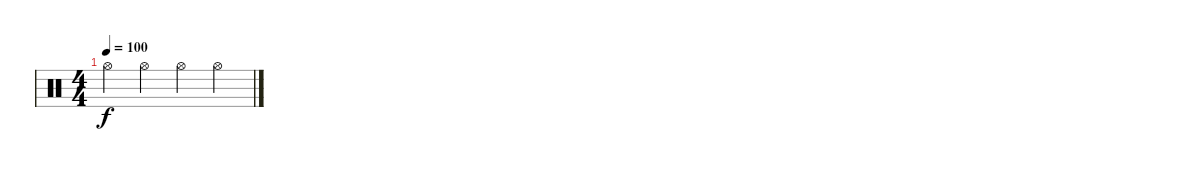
\track "" {instrument percussion}
\staff {score}
\articulation defaults
\ts (4 4)
\tempo 100
\clef neutral
\ks c "Hi-Hat (open)".4{dy f} "Hi-Hat (open)".4 "Hi-Hat (open)".4 "Hi-Hat (open)".4
